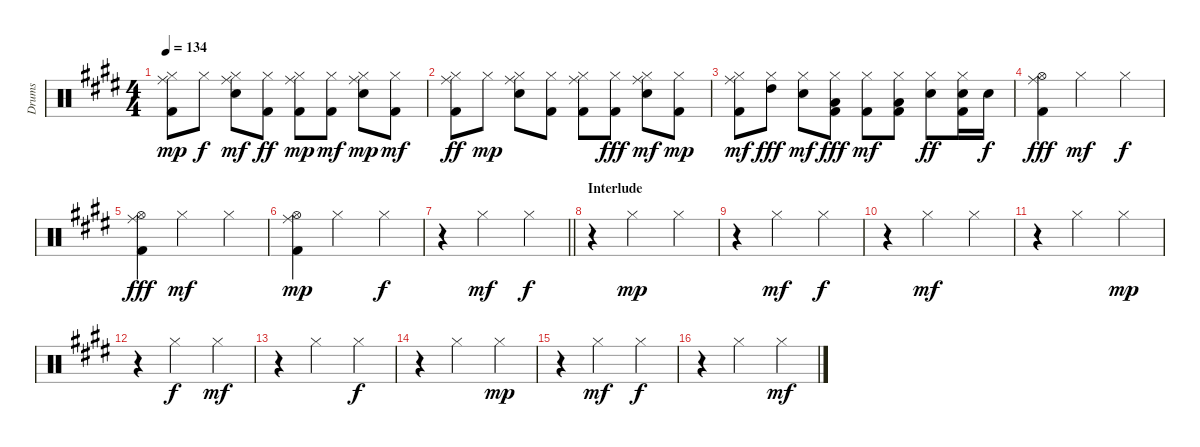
\track ("Drums" "Drums") {instrument percussion}
\staff {score}
\articulation defaults
\ts (4 4)
\tempo 134
\clef neutral
\ks e
("Kick (hit) 2" "Hi-Hat (closed)" "Ride (middle)").8{dy mp} "Hi-Hat (closed)".8{dy f} ("Snare (hit) 2" "Hi-Hat (closed)" "Ride (middle)").8{dy mf} ("Kick (hit) 2" "Hi-Hat (closed)").8{dy ff} ("Kick (hit) 2" "Hi-Hat (closed)" "Ride (middle)").8{dy mp} ("Kick (hit) 2" "Hi-Hat (closed)").8{dy mf} ("Snare (hit) 2" "Hi-Hat (closed)" "Ride (middle)").8{dy mp} ("Kick (hit) 2" "Hi-Hat (closed)").8{dy mf} |
("Kick (hit) 2" "Hi-Hat (closed)" "Ride (middle)").8{dy ff} "Hi-Hat (closed)".8{dy mp} ("Snare (hit) 2" "Hi-Hat (closed)" "Ride (middle)").8 ("Kick (hit) 2" "Hi-Hat (closed)").8 ("Kick (hit) 2" "Hi-Hat (closed)" "Ride (middle)").8 ("Kick (hit) 2" "Hi-Hat (closed)").8{dy fff} ("Snare (hit) 2" "Hi-Hat (closed)" "Ride (middle)").8{dy mf} ("Kick (hit) 2" "Hi-Hat (closed)").8{dy mp} |
("Kick (hit) 2" "Hi-Hat (closed)" "Ride (middle)").8{dy mf} ("Hi-Hat (closed)" "High Tom (hit)").8{dy fff} ("Snare (hit) 2" "Hi-Hat (closed)").8{dy mf} ("Kick (hit) 2" "Hi-Hat (closed)" "Low Tom (hit)").8{dy fff} ("Kick (hit) 2" "Hi-Hat (closed)").8{dy mf} ("Kick (hit) 2" "Low Floor Tom (hit)" "Hi-Hat (closed)").8 ("Snare (hit) 2" "Hi-Hat (closed)").8{dy ff} ("Kick (hit) 2" "Snare (hit) 2" "Hi-Hat (closed)").16 "Snare (hit) 2".16{dy f} |
("Kick (hit) 2" "Hi-Hat (open)" "Ride (middle)").4{dy fff} "Hi-Hat (closed)".2{dy mf} "Hi-Hat (closed)".4{dy f} |
("Kick (hit) 2" "Hi-Hat (open)" "Ride (middle)").4{dy fff} "Hi-Hat (closed)".2{dy mf} "Hi-Hat (closed)".4 |
("Kick (hit) 2" "Hi-Hat (open)" "Ride (middle)").4{dy mp} "Hi-Hat (closed)".2 "Hi-Hat (closed)".4{dy f} |
\barLineRight lightlight
r.4 "Hi-Hat (closed)".2{dy mf} "Hi-Hat (closed)".4{dy f} |
\section ("" "Interlude")
r.4 "Hi-Hat (closed)".2{dy mp} "Hi-Hat (closed)".4 |
r.4 "Hi-Hat (closed)".2{dy mf} "Hi-Hat (closed)".4{dy f} |
r.4 "Hi-Hat (closed)".2{dy mf} "Hi-Hat (closed)".4 |
r.4 "Hi-Hat (closed)".2 "Hi-Hat (closed)".4{dy mp} |
r.4 "Hi-Hat (closed)".2{dy f} "Hi-Hat (closed)".4{dy mf} |
r.4 "Hi-Hat (closed)".2 "Hi-Hat (closed)".4{dy f} |
r.4 "Hi-Hat (closed)".2 "Hi-Hat (closed)".4{dy mp} |
r.4 "Hi-Hat (closed)".2{dy mf} "Hi-Hat (closed)".4{dy f} |
r.4 "Hi-Hat (closed)".2 "Hi-Hat (closed)".4{dy mf}
